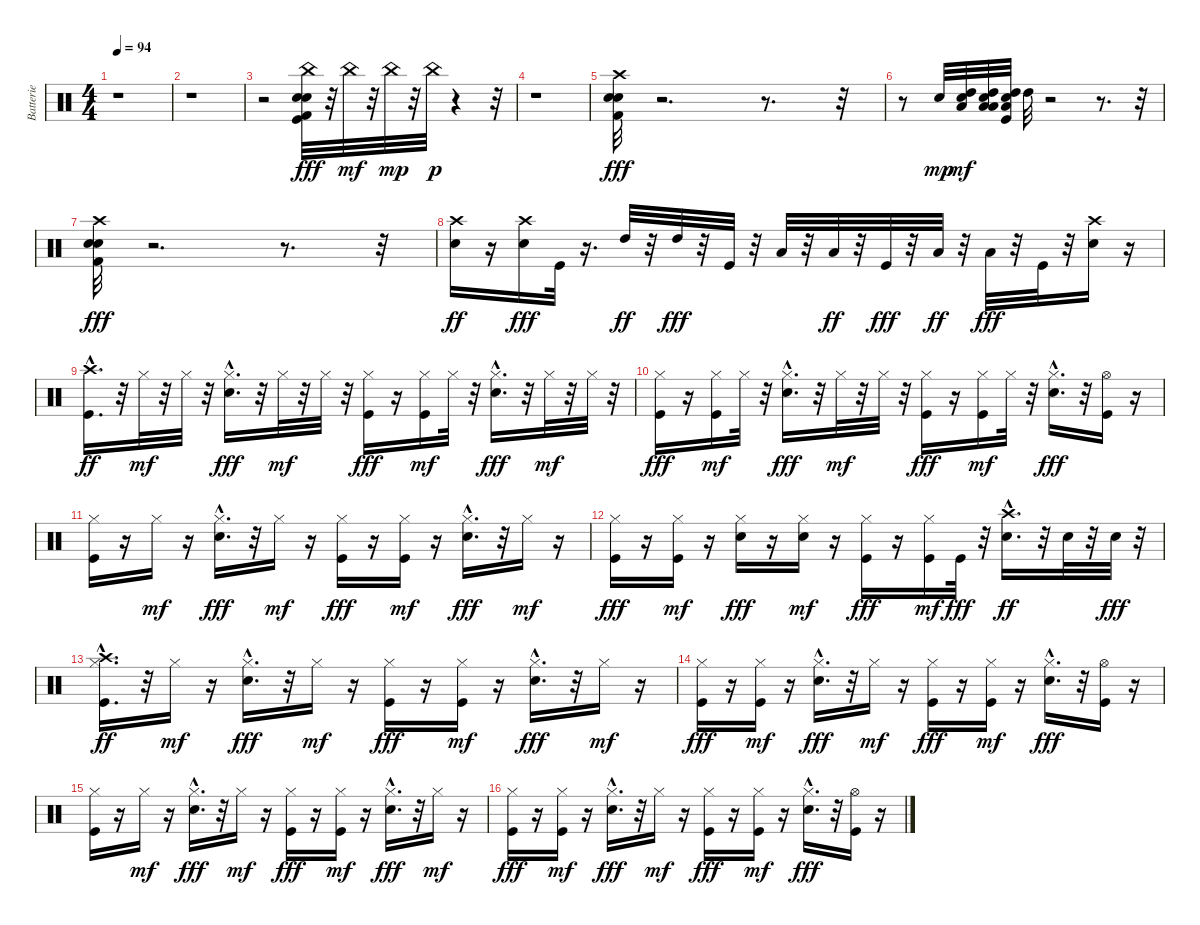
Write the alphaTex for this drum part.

\track ("Batterie" "Batterie") {instrument percussion}
\staff {score}
\articulation defaults
\ts (4 4)
\tempo 94
\clef neutral
\ks c
r.1{dy fff} |
r.1 |
r.2 ("Kick (hit)" "Kick (hit) 2" "Snare (hit) 2" "Electric Snare (hit)" "China (hit)").32 r.32 "China (hit)".32{dy mf} r.32 "China (hit)".32{dy mp} r.32 "China (hit)".32{dy p} r.4 r.32 |
r.1 |
("Kick (hit) 2" "Snare (hit) 2" "Electric Snare (hit)" "Crash high (hit)").32{dy fff} r.2{d} r.8{d} r.32 |
r.8 "Snare (hit) 2".32{dy mp} ("Snare (hit) 2" "High Tom (hit)" "Low Tom (hit)").32{dy mf} ("Snare (hit) 2" "High Tom (hit)" "Low Tom (hit)" "Low Floor Tom (hit)").32 ("Kick (hit)" "Snare (hit) 2" "High Tom (hit)" "Low Floor Tom (hit)").32 "High Tom (hit)".32 r.2 r.8{d} r.32 |
("Kick (hit) 2" "Snare (hit) 2" "Electric Snare (hit)" "Crash high (hit)").32{dy fff} r.2{d} r.8{d} r.32 |
("Snare (hit) 2" "Crash high (hit)").16{dy ff} r.16 ("Snare (hit) 2" "Crash high (hit)").16{dy fff} "Kick (hit)".32 r.16{d} "High Tom (hit)".32{dy ff} r.32 "High Tom (hit)".32{dy fff} r.32 "Kick (hit)".32 r.32 "Low Tom (hit)".32 r.32 "Low Tom (hit)".32{dy ff} r.32 "Kick (hit)".32{dy fff} r.32 "Low Floor Tom (hit)".32{dy ff} r.32 "Low Floor Tom (hit)".32{dy fff} r.32 "Kick (hit)".32 r.32 ("Snare (hit) 2" "Crash high (hit)").16 r.16 |
("Kick (hit)" "Crash high (hit)"{hac}).16{d dy ff} r.32 "Hi-Hat (closed)".32{dy mf} r.32 "Hi-Hat (closed)".32 r.32 ("Snare (hit) 2"{hac} "Hi-Hat (closed)").16{d dy fff} r.32 "Hi-Hat (closed)".32{dy mf} r.32 "Hi-Hat (closed)".32 r.32 ("Kick (hit)" "Hi-Hat (closed)").16{dy fff} r.16 ("Kick (hit)" "Hi-Hat (closed)").16{dy mf} "Hi-Hat (closed)".32 r.32 ("Snare (hit) 2"{hac} "Hi-Hat (closed)").16{d dy fff} r.32 "Hi-Hat (closed)".32{dy mf} r.32 "Hi-Hat (closed)".32 r.32 |
("Kick (hit)" "Hi-Hat (closed)").16{dy fff} r.16 ("Kick (hit)" "Hi-Hat (closed)").16{dy mf} "Hi-Hat (closed)".32 r.32 ("Snare (hit) 2"{hac} "Hi-Hat (closed)").16{d dy fff} r.32 "Hi-Hat (closed)".32{dy mf} r.32 "Hi-Hat (closed)".32 r.32 ("Kick (hit)" "Hi-Hat (closed)").16{dy fff} r.16 ("Kick (hit)" "Hi-Hat (closed)").16{dy mf} "Hi-Hat (closed)".32 r.32 ("Snare (hit) 2"{hac} "Hi-Hat (closed)").16{d dy fff} r.32 ("Kick (hit)" "Hi-Hat (open)").16 r.16 |
("Kick (hit)" "Hi-Hat (closed)").16 r.16 "Hi-Hat (closed)".16{dy mf} r.16 ("Snare (hit) 2"{hac} "Hi-Hat (closed)").16{d dy fff} r.32 "Hi-Hat (closed)".16{dy mf} r.16 ("Kick (hit)" "Hi-Hat (closed)").16{dy fff} r.16 ("Kick (hit)" "Hi-Hat (closed)").16{dy mf} r.16 ("Snare (hit) 2"{hac} "Hi-Hat (closed)").16{d dy fff} r.32 "Hi-Hat (closed)".16{dy mf} r.16 |
("Kick (hit)" "Hi-Hat (closed)").16{dy fff} r.16 ("Kick (hit)" "Hi-Hat (closed)").16{dy mf} r.16 ("Snare (hit) 2" "Hi-Hat (closed)").16{dy fff} r.16 ("Snare (hit) 2" "Hi-Hat (closed)").16{dy mf} r.16 ("Kick (hit)" "Hi-Hat (closed)").16{dy fff} r.16 ("Kick (hit)" "Hi-Hat (closed)").16{dy mf} "Kick (hit)".32{dy fff} r.32 ("Snare (hit) 2" "Crash high (hit)"{hac}).16{d dy ff} r.32 "Snare (hit) 2".32 r.32 "Snare (hit) 2".32{dy fff} r.32 |
("Kick (hit)" "Hi-Hat (closed)" "Crash high (hit)"{hac}).16{d dy ff} r.32 "Hi-Hat (closed)".16{dy mf} r.16 ("Snare (hit) 2"{hac} "Hi-Hat (closed)").16{d dy fff} r.32 "Hi-Hat (closed)".16{dy mf} r.16 ("Kick (hit)" "Hi-Hat (closed)").16{dy fff} r.16 ("Kick (hit)" "Hi-Hat (closed)").16{dy mf} r.16 ("Snare (hit) 2"{hac} "Hi-Hat (closed)").16{d dy fff} r.32 "Hi-Hat (closed)".16{dy mf} r.16 |
("Kick (hit)" "Hi-Hat (closed)").16{dy fff} r.16 ("Kick (hit)" "Hi-Hat (closed)").16{dy mf} r.16 ("Snare (hit) 2"{hac} "Hi-Hat (closed)").16{d dy fff} r.32 "Hi-Hat (closed)".16{dy mf} r.16 ("Kick (hit)" "Hi-Hat (closed)").16{dy fff} r.16 ("Kick (hit)" "Hi-Hat (closed)").16{dy mf} r.16 ("Snare (hit) 2"{hac} "Hi-Hat (closed)").16{d dy fff} r.32 ("Kick (hit)" "Hi-Hat (open)").16 r.16 |
("Kick (hit)" "Hi-Hat (closed)").16 r.16 "Hi-Hat (closed)".16{dy mf} r.16 ("Snare (hit) 2"{hac} "Hi-Hat (closed)").16{d dy fff} r.32 "Hi-Hat (closed)".16{dy mf} r.16 ("Kick (hit)" "Hi-Hat (closed)").16{dy fff} r.16 ("Kick (hit)" "Hi-Hat (closed)").16{dy mf} r.16 ("Snare (hit) 2"{hac} "Hi-Hat (closed)").16{d dy fff} r.32 "Hi-Hat (closed)".16{dy mf} r.16 |
("Kick (hit)" "Hi-Hat (closed)").16{dy fff} r.16 ("Kick (hit)" "Hi-Hat (closed)").16{dy mf} r.16 ("Snare (hit) 2"{hac} "Hi-Hat (closed)").16{d dy fff} r.32 "Hi-Hat (closed)".16{dy mf} r.16 ("Kick (hit)" "Hi-Hat (closed)").16{dy fff} r.16 ("Kick (hit)" "Hi-Hat (closed)").16{dy mf} r.16 ("Snare (hit) 2"{hac} "Hi-Hat (closed)").16{d dy fff} r.32 ("Kick (hit)" "Hi-Hat (open)").16 r.16
